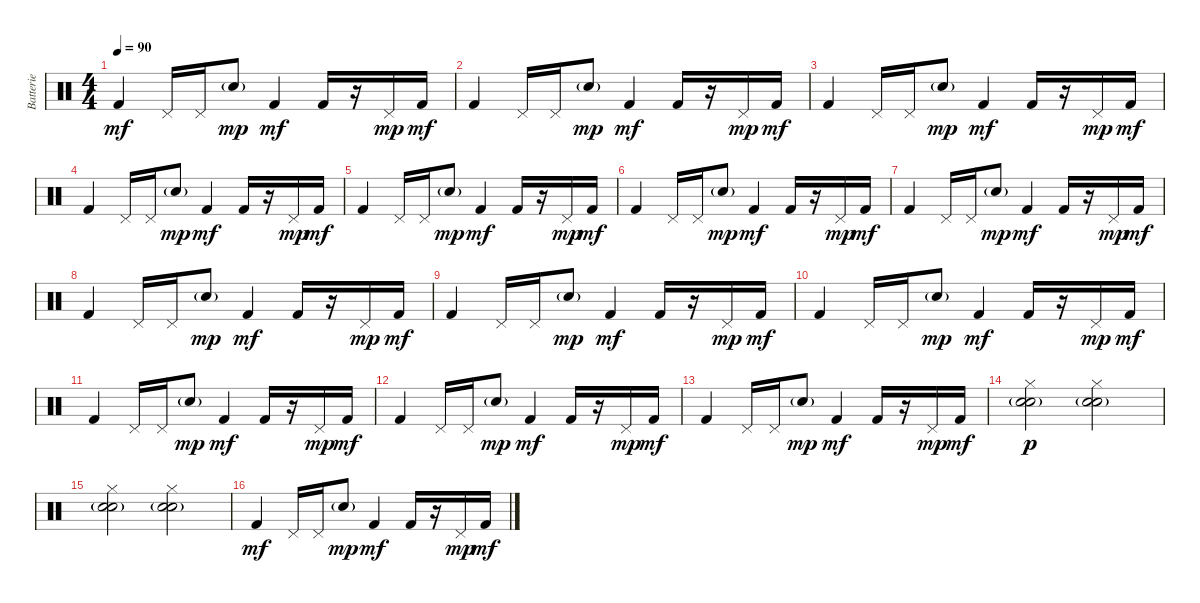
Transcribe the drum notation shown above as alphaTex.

\track ("Batterie" "Batterie") {instrument percussion}
\staff {score}
\articulation defaults
\ts (4 4)
\tempo 90
\clef neutral
\ks c "Kick (hit) 2".4{dy mf} "Pedal Hi-Hat (hit)".16 "Pedal Hi-Hat (hit)".16 "Hand Clap (hit)"{g}.8{dy mp} "Kick (hit) 2".4{dy mf} "Kick (hit) 2".16
r.16 "Pedal Hi-Hat (hit)".16{dy mp} "Kick (hit) 2".16{dy mf} |
"Kick (hit) 2".4 "Pedal Hi-Hat (hit)".16 "Pedal Hi-Hat (hit)".16 "Hand Clap (hit)"{g}.8{dy mp} "Kick (hit) 2".4{dy mf} "Kick (hit) 2".16 r.16 "Pedal Hi-Hat (hit)".16{dy mp} "Kick (hit) 2".16{dy mf} |
"Kick (hit) 2".4 "Pedal Hi-Hat (hit)".16 "Pedal Hi-Hat (hit)".16 "Hand Clap (hit)"{g}.8{dy mp} "Kick (hit) 2".4{dy mf} "Kick (hit) 2".16 r.16 "Pedal Hi-Hat (hit)".16{dy mp} "Kick (hit) 2".16{dy mf} |
"Kick (hit) 2".4 "Pedal Hi-Hat (hit)".16 "Pedal Hi-Hat (hit)".16 "Hand Clap (hit)"{g}.8{dy mp} "Kick (hit) 2".4{dy mf} "Kick (hit) 2".16 r.16 "Pedal Hi-Hat (hit)".16{dy mp} "Kick (hit) 2".16{dy mf} |
"Kick (hit) 2".4 "Pedal Hi-Hat (hit)".16 "Pedal Hi-Hat (hit)".16 "Hand Clap (hit)"{g}.8{dy mp} "Kick (hit) 2".4{dy mf} "Kick (hit) 2".16 r.16 "Pedal Hi-Hat (hit)".16{dy mp} "Kick (hit) 2".16{dy mf} |
"Kick (hit) 2".4 "Pedal Hi-Hat (hit)".16 "Pedal Hi-Hat (hit)".16 "Hand Clap (hit)"{g}.8{dy mp} "Kick (hit) 2".4{dy mf} "Kick (hit) 2".16 r.16 "Pedal Hi-Hat (hit)".16{dy mp} "Kick (hit) 2".16{dy mf} |
"Kick (hit) 2".4 "Pedal Hi-Hat (hit)".16 "Pedal Hi-Hat (hit)".16 "Hand Clap (hit)"{g}.8{dy mp} "Kick (hit) 2".4{dy mf} "Kick (hit) 2".16 r.16 "Pedal Hi-Hat (hit)".16{dy mp} "Kick (hit) 2".16{dy mf} |
"Kick (hit) 2".4 "Pedal Hi-Hat (hit)".16 "Pedal Hi-Hat (hit)".16 "Hand Clap (hit)"{g}.8{dy mp} "Kick (hit) 2".4{dy mf} "Kick (hit) 2".16 r.16 "Pedal Hi-Hat (hit)".16{dy mp} "Kick (hit) 2".16{dy mf} |
"Kick (hit) 2".4 "Pedal Hi-Hat (hit)".16 "Pedal Hi-Hat (hit)".16 "Hand Clap (hit)"{g}.8{dy mp} "Kick (hit) 2".4{dy mf} "Kick (hit) 2".16 r.16 "Pedal Hi-Hat (hit)".16{dy mp} "Kick (hit) 2".16{dy mf} |
"Kick (hit) 2".4 "Pedal Hi-Hat (hit)".16 "Pedal Hi-Hat (hit)".16 "Hand Clap (hit)"{g}.8{dy mp} "Kick (hit) 2".4{dy mf} "Kick (hit) 2".16 r.16 "Pedal Hi-Hat (hit)".16{dy mp} "Kick (hit) 2".16{dy mf} |
"Kick (hit) 2".4 "Pedal Hi-Hat (hit)".16 "Pedal Hi-Hat (hit)".16 "Hand Clap (hit)"{g}.8{dy mp} "Kick (hit) 2".4{dy mf} "Kick (hit) 2".16 r.16 "Pedal Hi-Hat (hit)".16{dy mp} "Kick (hit) 2".16{dy mf} |
"Kick (hit) 2".4 "Pedal Hi-Hat (hit)".16 "Pedal Hi-Hat (hit)".16 "Hand Clap (hit)"{g}.8{dy mp} "Kick (hit) 2".4{dy mf} "Kick (hit) 2".16 r.16 "Pedal Hi-Hat (hit)".16{dy mp} "Kick (hit) 2".16{dy mf} |
"Kick (hit) 2".4 "Pedal Hi-Hat (hit)".16 "Pedal Hi-Hat (hit)".16 "Hand Clap (hit)"{g}.8{dy mp} "Kick (hit) 2".4{dy mf} "Kick (hit) 2".16 r.16 "Pedal Hi-Hat (hit)".16{dy mp} "Kick (hit) 2".16{dy mf} |
("Hi-Hat (closed)" "Electric Snare (hit)"{g} "Hand Clap (hit)"{g}).2{dy p} ("Hi-Hat (closed)" "Electric Snare (hit)"{g} "Hand Clap (hit)"{g}).2 |
("Hi-Hat (closed)" "Electric Snare (hit)"{g} "Hand Clap (hit)"{g}).2 ("Hi-Hat (closed)" "Electric Snare (hit)"{g} "Hand Clap (hit)"{g}).2 |
"Kick (hit) 2".4{dy mf} "Pedal Hi-Hat (hit)".16 "Pedal Hi-Hat (hit)".16 "Hand Clap (hit)"{g}.8{dy mp} "Kick (hit) 2".4{dy mf} "Kick (hit) 2".16 r.16 "Pedal Hi-Hat (hit)".16{dy mp} "Kick (hit) 2".16{dy mf}
